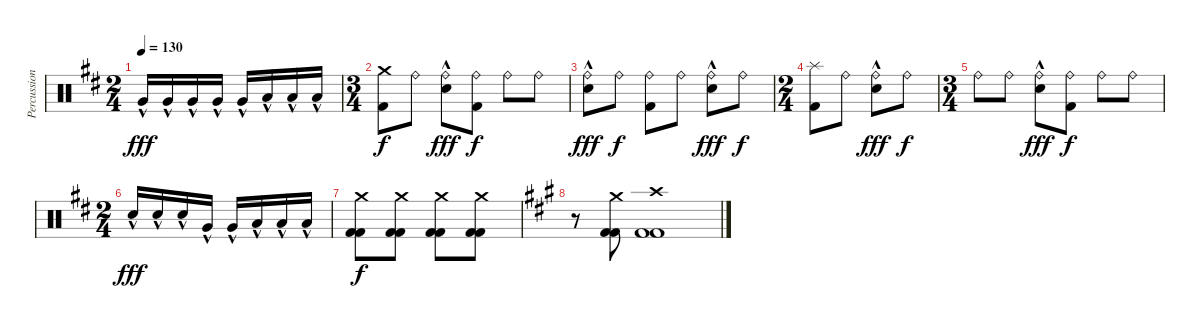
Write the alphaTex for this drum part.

\track ("Percussion" "Percussion") {instrument percussion bank 110}
\staff {score}
\articulation defaults
\ts (2 4)
\tempo 130
\clef neutral
\ks d "Very Low Tom (hit)"{hac}.16{dy fff} "Very Low Tom (hit)"{hac}.16 "Very Low Tom (hit)"{hac}.16 "Very Low Tom (hit)"{hac}.16 "Very Low Tom (hit)"{hac}.16 "Low Floor Tom (hit)"{hac}.16 "Low Floor Tom (hit)"{hac}.16 "Low Floor Tom (hit)"{hac}.16
|
\ts (3 4)
("Crash medium (hit)" "Kick (hit) 2").8{dy f} "Ride (bell)".8 ("Ride (bell)" "Electric Snare (hit)"{hac}).8{dy fff} ("Ride (bell)" "Kick (hit) 2").8{dy f} "Ride (bell)".8 "Ride (bell)".8 |
("Ride (bell)" "Electric Snare (hit)"{hac}).8{dy fff} "Ride (bell)".8{dy f} ("Ride (bell)" "Kick (hit) 2").8 "Ride (bell)".8 ("Ride (bell)" "Electric Snare (hit)"{hac}).8{dy fff} "Ride (bell)".8{dy f} |
\ts (2 4)
("Splash (hit)" "Kick (hit) 2").8 "Ride (bell)".8 ("Ride (bell)" "Electric Snare (hit)"{hac}).8{dy fff} "Ride (bell)".8{dy f} |
\ts (3 4)
"Ride (bell)".8 "Ride (bell)".8 ("Ride (bell)" "Electric Snare (hit)"{hac}).8{dy fff} ("Ride (bell)" "Kick (hit) 2").8{dy f} "Ride (bell)".8 "Ride (bell)".8 |
\ts (2 4)
"Electric Snare (hit)"{hac}.16{dy fff} "Electric Snare (hit)"{hac}.16 "Electric Snare (hit)"{hac}.16 "Very Low Tom (hit)"{hac}.16 "Very Low Tom (hit)"{hac}.16 "Low Floor Tom (hit)"{hac}.16 "Low Floor Tom (hit)"{hac}.16 "Low Floor Tom (hit)"{hac}.16 |
("Crash medium (hit)" "Kick (hit) 2" "Kick (hit) 2").8{dy f} ("Crash medium (hit)" "Kick (hit) 2" "Kick (hit) 2").8 ("Crash medium (hit)" "Kick (hit) 2" "Kick (hit) 2").8 ("Crash medium (hit)" "Kick (hit) 2" "Kick (hit) 2").8 |
\ks a
r.8 ("Crash medium (hit)" "Kick (hit) 2" "Kick (hit) 2").8 ("Crash high (hit)" "Kick (hit) 2" "Kick (hit) 2").1
